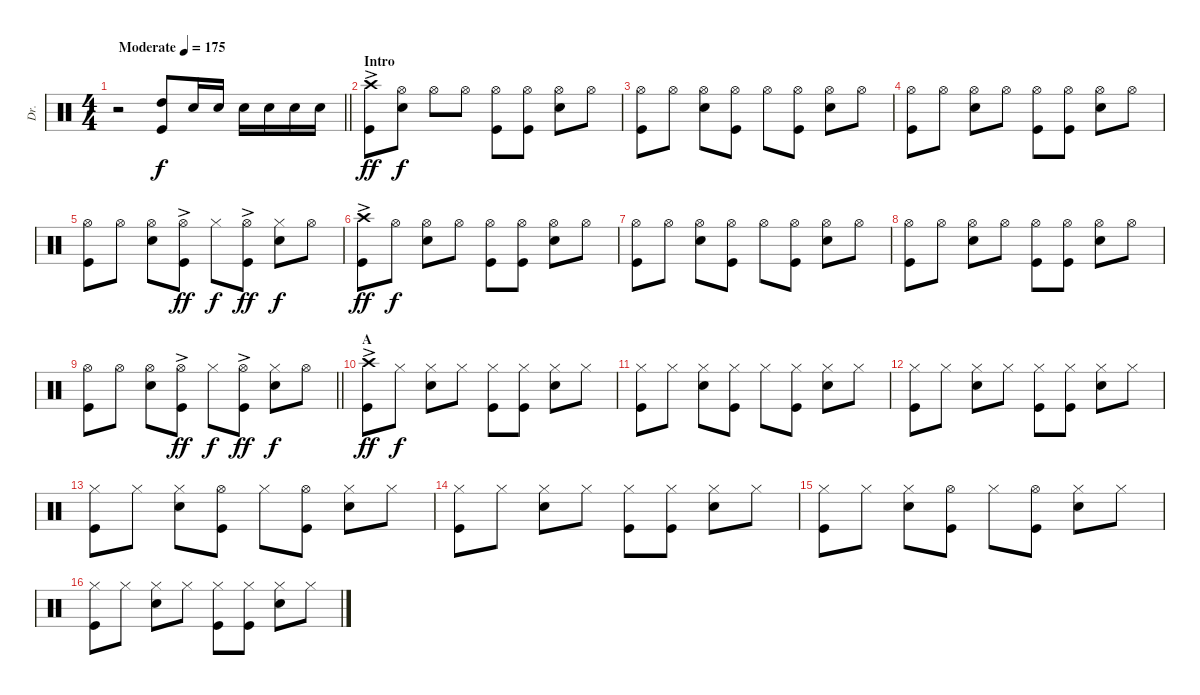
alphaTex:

\track ("Dr." "Dr.") {instrument percussion}
\staff {score}
\articulation defaults
\ts (4 4)
\tempo (175 "Moderate")
\clef neutral
\barLineRight lightlight
\ks c
r.2{dy f} ("High Tom (hit)" "Kick (hit)").8 "Snare (hit) 2".16 "Snare (hit) 2".16 "Snare (hit) 2".16 "Snare (hit) 2".16 "Snare (hit) 2".16 "Snare (hit) 2".16 |
\section ("" "Intro")
("Crash high (hit)"{ac} "Kick (hit)"{ac}).8{dy ff} ("Hi-Hat (open)" "Snare (hit) 2").8{dy f} "Hi-Hat (open)".8 "Hi-Hat (open)".8 ("Hi-Hat (open)" "Kick (hit)").8 ("Hi-Hat (open)" "Kick (hit)").8 ("Hi-Hat (open)" "Snare (hit) 2").8 "Hi-Hat (open)".8 |
("Hi-Hat (open)" "Kick (hit)").8 "Hi-Hat (open)".8 ("Hi-Hat (open)" "Snare (hit) 2").8 ("Hi-Hat (open)" "Kick (hit)").8 "Hi-Hat (open)".8 ("Hi-Hat (open)" "Kick (hit)").8 ("Hi-Hat (open)" "Snare (hit) 2").8 "Hi-Hat (open)".8 |
("Hi-Hat (open)" "Kick (hit)").8 "Hi-Hat (open)".8 ("Hi-Hat (open)" "Snare (hit) 2").8 "Hi-Hat (open)".8 ("Hi-Hat (open)" "Kick (hit)").8 ("Hi-Hat (open)" "Kick (hit)").8 ("Hi-Hat (open)" "Snare (hit) 2").8 "Hi-Hat (open)".8 |
("Hi-Hat (open)" "Kick (hit)").8 "Hi-Hat (open)".8 ("Hi-Hat (open)" "Snare (hit) 2").8 ("Hi-Hat (open)"{ac} "Kick (hit)"{ac}).8{dy ff} "Hi-Hat (closed)".8{dy f} ("Hi-Hat (open)"{ac} "Kick (hit)"{ac}).8{dy ff} ("Hi-Hat (closed)" "Snare (hit) 2").8{dy f} "Hi-Hat (open)".8 |
("Crash high (hit)"{ac} "Kick (hit)"{ac}).8{dy ff} "Hi-Hat (open)".8{dy f} ("Hi-Hat (open)" "Snare (hit) 2").8 "Hi-Hat (open)".8 ("Hi-Hat (open)" "Kick (hit)").8 ("Hi-Hat (open)" "Kick (hit)").8 ("Hi-Hat (open)" "Snare (hit) 2").8 "Hi-Hat (open)".8 |
("Hi-Hat (open)" "Kick (hit)").8 "Hi-Hat (open)".8 ("Hi-Hat (open)" "Snare (hit) 2").8 ("Hi-Hat (open)" "Kick (hit)").8 "Hi-Hat (open)".8 ("Hi-Hat (open)" "Kick (hit)").8 ("Hi-Hat (open)" "Snare (hit) 2").8 "Hi-Hat (open)".8 |
("Hi-Hat (open)" "Kick (hit)").8 "Hi-Hat (open)".8 ("Hi-Hat (open)" "Snare (hit) 2").8 "Hi-Hat (open)".8 ("Hi-Hat (open)" "Kick (hit)").8 ("Hi-Hat (open)" "Kick (hit)").8 ("Hi-Hat (open)" "Snare (hit) 2").8 "Hi-Hat (open)".8 |
\barLineRight lightlight
("Hi-Hat (open)" "Kick (hit)").8 "Hi-Hat (open)".8 ("Hi-Hat (open)" "Snare (hit) 2").8 ("Hi-Hat (open)"{ac} "Kick (hit)"{ac}).8{dy ff} "Hi-Hat (closed)".8{dy f} ("Hi-Hat (open)"{ac} "Kick (hit)"{ac}).8{dy ff} ("Hi-Hat (closed)" "Snare (hit) 2").8{dy f} "Hi-Hat (open)".8 |
\section ("" "A")
("Crash high (hit)"{ac} "Kick (hit)"{ac}).8{dy ff} "Hi-Hat (closed)".8{dy f} ("Hi-Hat (closed)" "Snare (hit) 2").8 "Hi-Hat (closed)".8 ("Hi-Hat (closed)" "Kick (hit)").8 ("Hi-Hat (closed)" "Kick (hit)").8 ("Hi-Hat (closed)" "Snare (hit) 2").8 "Hi-Hat (closed)".8 |
("Hi-Hat (closed)" "Kick (hit)").8 "Hi-Hat (closed)".8 ("Hi-Hat (closed)" "Snare (hit) 2").8 ("Hi-Hat (closed)" "Kick (hit)").8 "Hi-Hat (closed)".8 ("Hi-Hat (closed)" "Kick (hit)").8 ("Hi-Hat (closed)" "Snare (hit) 2").8 "Hi-Hat (closed)".8 |
("Hi-Hat (closed)" "Kick (hit)").8 "Hi-Hat (closed)".8 ("Hi-Hat (closed)" "Snare (hit) 2").8 "Hi-Hat (closed)".8 ("Hi-Hat (closed)" "Kick (hit)").8 ("Hi-Hat (closed)" "Kick (hit)").8 ("Hi-Hat (closed)" "Snare (hit) 2").8 "Hi-Hat (closed)".8 |
("Hi-Hat (closed)" "Kick (hit)").8 "Hi-Hat (closed)".8 ("Hi-Hat (closed)" "Snare (hit) 2").8 ("Hi-Hat (open)" "Kick (hit)").8 "Hi-Hat (closed)".8 ("Hi-Hat (open)" "Kick (hit)").8 ("Hi-Hat (closed)" "Snare (hit) 2").8 "Hi-Hat (closed)".8 |
("Hi-Hat (closed)" "Kick (hit)").8 "Hi-Hat (closed)".8 ("Hi-Hat (closed)" "Snare (hit) 2").8 "Hi-Hat (closed)".8 ("Hi-Hat (closed)" "Kick (hit)").8 ("Hi-Hat (closed)" "Kick (hit)").8 ("Hi-Hat (closed)" "Snare (hit) 2").8 "Hi-Hat (closed)".8 |
("Hi-Hat (closed)" "Kick (hit)").8 "Hi-Hat (closed)".8 ("Hi-Hat (closed)" "Snare (hit) 2").8 ("Hi-Hat (open)" "Kick (hit)").8 "Hi-Hat (closed)".8 ("Hi-Hat (open)" "Kick (hit)").8 ("Hi-Hat (closed)" "Snare (hit) 2").8 "Hi-Hat (closed)".8 |
("Hi-Hat (closed)" "Kick (hit)").8 "Hi-Hat (closed)".8 ("Hi-Hat (closed)" "Snare (hit) 2").8 "Hi-Hat (closed)".8 ("Hi-Hat (closed)" "Kick (hit)").8 ("Hi-Hat (closed)" "Kick (hit)").8 ("Hi-Hat (closed)" "Snare (hit) 2").8 "Hi-Hat (closed)".8
